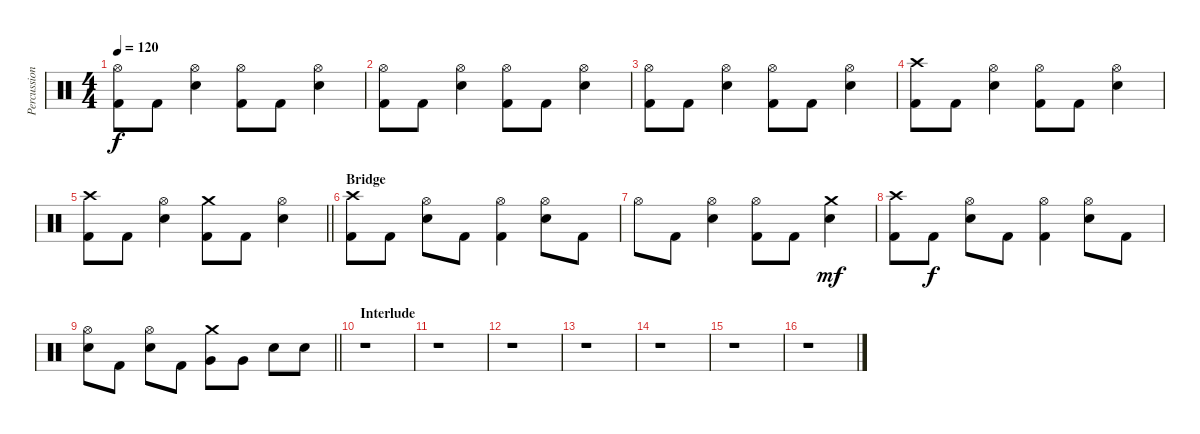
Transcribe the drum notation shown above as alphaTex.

\track ("Percussion" "Percussion") {instrument percussion}
\staff {score}
\articulation defaults
\ts (4 4)
\tempo 120
\clef neutral
\ks c
("Hi-Hat (open)" "Kick (hit) 2").8{dy f} "Kick (hit) 2".8 ("Hi-Hat (open)" "Electric Snare (hit)").4 ("Hi-Hat (open)" "Kick (hit) 2").8 "Kick (hit) 2".8 ("Hi-Hat (open)" "Electric Snare (hit)").4 |
("Hi-Hat (open)" "Kick (hit) 2").8 "Kick (hit) 2".8 ("Hi-Hat (open)" "Electric Snare (hit)").4 ("Hi-Hat (open)" "Kick (hit) 2").8 "Kick (hit) 2".8 ("Hi-Hat (open)" "Electric Snare (hit)").4 |
("Hi-Hat (open)" "Kick (hit) 2").8 "Kick (hit) 2".8 ("Hi-Hat (open)" "Electric Snare (hit)").4 ("Hi-Hat (open)" "Kick (hit) 2").8 "Kick (hit) 2".8 ("Hi-Hat (open)" "Electric Snare (hit)").4 |
("Crash high (hit)" "Kick (hit) 2").8 "Kick (hit) 2".8 ("Hi-Hat (open)" "Electric Snare (hit)").4 ("Hi-Hat (open)" "Kick (hit) 2").8 "Kick (hit) 2".8 ("Hi-Hat (open)" "Electric Snare (hit)").4 |
\barLineRight lightlight
("Crash high (hit)" "Kick (hit) 2").8 "Kick (hit) 2".8 ("Hi-Hat (open)" "Electric Snare (hit)").4 ("Crash medium (hit)" "Kick (hit) 2").8 "Kick (hit) 2".8 ("Hi-Hat (open)" "Electric Snare (hit)").4 |
\section ("" "Bridge")
("Crash high (hit)" "Kick (hit) 2").8 "Kick (hit) 2".8 ("Hi-Hat (open)" "Electric Snare (hit)").8 "Kick (hit) 2".8 ("Hi-Hat (open)" "Kick (hit) 2").4 ("Hi-Hat (open)" "Electric Snare (hit)").8 "Kick (hit) 2".8 |
"Hi-Hat (open)".8 "Kick (hit) 2".8 ("Hi-Hat (open)" "Electric Snare (hit)").4 ("Hi-Hat (open)" "Kick (hit) 2").8 "Kick (hit) 2".8 ("Crash medium (hit)" "Electric Snare (hit)").4{dy mf} |
("Crash high (hit)" "Kick (hit) 2").8 "Kick (hit) 2".8{dy f} ("Hi-Hat (open)" "Electric Snare (hit)").8 "Kick (hit) 2".8 ("Hi-Hat (open)" "Kick (hit) 2").4 ("Hi-Hat (open)" "Electric Snare (hit)").8 "Kick (hit) 2".8 |
\barLineRight lightlight
("Hi-Hat (open)" "Electric Snare (hit)").8 "Kick (hit) 2".8 ("Hi-Hat (open)" "Electric Snare (hit)").8 "Kick (hit) 2".8 ("Crash medium (hit)" "Very Low Tom (hit)").8 "Very Low Tom (hit)".8 "Electric Snare (hit)".8 "Electric Snare (hit)".8 |
\section ("" "Interlude")
r.1 |
r.1 |
r.1 |
r.1 |
r.1 |
r.1 |
r.1
